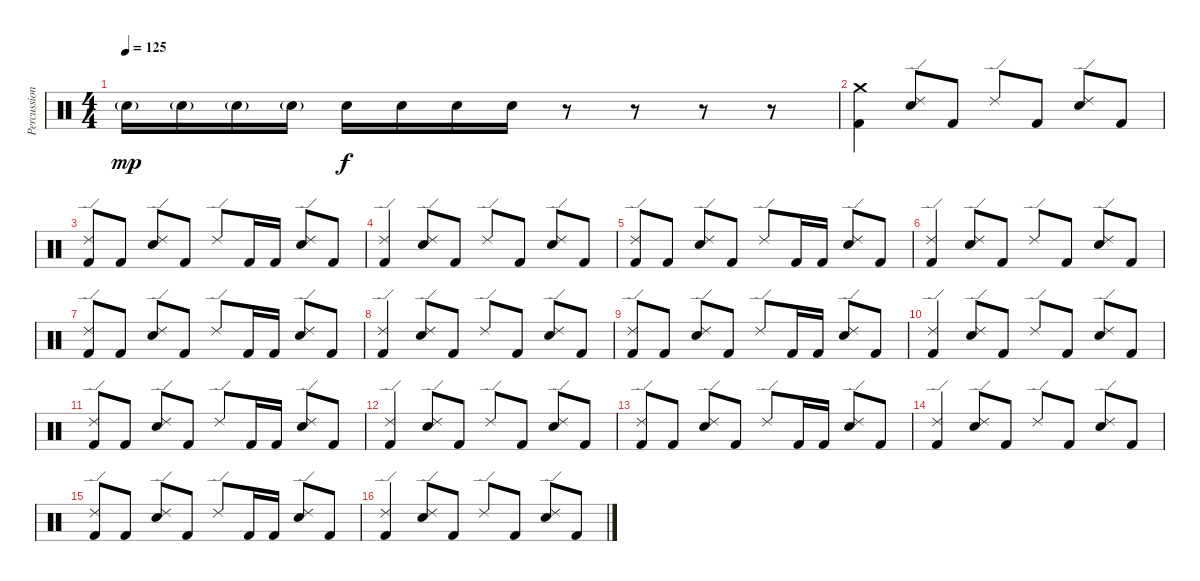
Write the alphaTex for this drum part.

\track ("Percussion" "Percussion") {instrument percussion}
\staff {score}
\articulation defaults
\ts (4 4)
\tempo 125
\clef neutral
\ks c "Electric Snare (hit)"{g}.16{dy mp} "Electric Snare (hit)"{g}.16 "Electric Snare (hit)"{g}.16 "Electric Snare (hit)"{g}.16 "Electric Snare (hit)".16{dy f} "Electric Snare (hit)".16 "Electric Snare (hit)".16 "Electric Snare (hit)".16
r.8 r.8 r.8 r.8 |
("Crash medium (hit)" "Kick (hit) 2").4 ("Ride (edge) 2" "Electric Snare (hit)").8 "Kick (hit) 2".8 "Ride (edge) 2".8 "Kick (hit) 2".8 ("Ride (edge) 2" "Electric Snare (hit)").8 "Kick (hit) 2".8 |
("Ride (edge) 2" "Kick (hit) 2").8 "Kick (hit) 2".8 ("Ride (edge) 2" "Electric Snare (hit)").8 "Kick (hit) 2".8 "Ride (edge) 2".8 "Kick (hit) 2".16 "Kick (hit) 2".16 ("Ride (edge) 2" "Electric Snare (hit)").8 "Kick (hit) 2".8 |
("Ride (edge) 2" "Kick (hit) 2").4 ("Ride (edge) 2" "Electric Snare (hit)").8 "Kick (hit) 2".8 "Ride (edge) 2".8 "Kick (hit) 2".8 ("Ride (edge) 2" "Electric Snare (hit)").8 "Kick (hit) 2".8 |
("Ride (edge) 2" "Kick (hit) 2").8 "Kick (hit) 2".8 ("Ride (edge) 2" "Electric Snare (hit)").8 "Kick (hit) 2".8 "Ride (edge) 2".8 "Kick (hit) 2".16 "Kick (hit) 2".16 ("Ride (edge) 2" "Electric Snare (hit)").8 "Kick (hit) 2".8 |
("Ride (edge) 2" "Kick (hit) 2").4 ("Ride (edge) 2" "Electric Snare (hit)").8 "Kick (hit) 2".8 "Ride (edge) 2".8 "Kick (hit) 2".8 ("Ride (edge) 2" "Electric Snare (hit)").8 "Kick (hit) 2".8 |
("Ride (edge) 2" "Kick (hit) 2").8 "Kick (hit) 2".8 ("Ride (edge) 2" "Electric Snare (hit)").8 "Kick (hit) 2".8 "Ride (edge) 2".8 "Kick (hit) 2".16 "Kick (hit) 2".16 ("Ride (edge) 2" "Electric Snare (hit)").8 "Kick (hit) 2".8 |
("Ride (edge) 2" "Kick (hit) 2").4 ("Ride (edge) 2" "Electric Snare (hit)").8 "Kick (hit) 2".8 "Ride (edge) 2".8 "Kick (hit) 2".8 ("Ride (edge) 2" "Electric Snare (hit)").8 "Kick (hit) 2".8 |
("Ride (edge) 2" "Kick (hit) 2").8 "Kick (hit) 2".8 ("Ride (edge) 2" "Electric Snare (hit)").8 "Kick (hit) 2".8 "Ride (edge) 2".8 "Kick (hit) 2".16 "Kick (hit) 2".16 ("Ride (edge) 2" "Electric Snare (hit)").8 "Kick (hit) 2".8 |
("Ride (edge) 2" "Kick (hit) 2").4 ("Ride (edge) 2" "Electric Snare (hit)").8 "Kick (hit) 2".8 "Ride (edge) 2".8 "Kick (hit) 2".8 ("Ride (edge) 2" "Electric Snare (hit)").8 "Kick (hit) 2".8 |
("Ride (edge) 2" "Kick (hit) 2").8 "Kick (hit) 2".8 ("Ride (edge) 2" "Electric Snare (hit)").8 "Kick (hit) 2".8 "Ride (edge) 2".8 "Kick (hit) 2".16 "Kick (hit) 2".16 ("Ride (edge) 2" "Electric Snare (hit)").8 "Kick (hit) 2".8 |
("Ride (edge) 2" "Kick (hit) 2").4 ("Ride (edge) 2" "Electric Snare (hit)").8 "Kick (hit) 2".8 "Ride (edge) 2".8 "Kick (hit) 2".8 ("Ride (edge) 2" "Electric Snare (hit)").8 "Kick (hit) 2".8 |
("Ride (edge) 2" "Kick (hit) 2").8 "Kick (hit) 2".8 ("Ride (edge) 2" "Electric Snare (hit)").8 "Kick (hit) 2".8 "Ride (edge) 2".8 "Kick (hit) 2".16 "Kick (hit) 2".16 ("Ride (edge) 2" "Electric Snare (hit)").8 "Kick (hit) 2".8 |
("Ride (edge) 2" "Kick (hit) 2").4 ("Ride (edge) 2" "Electric Snare (hit)").8 "Kick (hit) 2".8 "Ride (edge) 2".8 "Kick (hit) 2".8 ("Ride (edge) 2" "Electric Snare (hit)").8 "Kick (hit) 2".8 |
("Ride (edge) 2" "Kick (hit) 2").8 "Kick (hit) 2".8 ("Ride (edge) 2" "Electric Snare (hit)").8 "Kick (hit) 2".8 "Ride (edge) 2".8 "Kick (hit) 2".16 "Kick (hit) 2".16 ("Ride (edge) 2" "Electric Snare (hit)").8 "Kick (hit) 2".8 |
("Ride (edge) 2" "Kick (hit) 2").4 ("Ride (edge) 2" "Electric Snare (hit)").8 "Kick (hit) 2".8 "Ride (edge) 2".8 "Kick (hit) 2".8 ("Ride (edge) 2" "Electric Snare (hit)").8 "Kick (hit) 2".8
